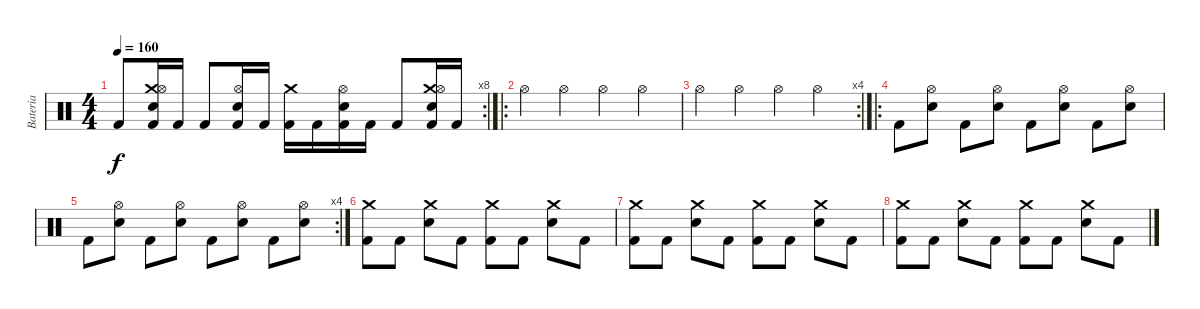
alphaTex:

\track ("Bateria" "Bateria") {instrument percussion}
\staff {score}
\articulation defaults
\rc 8
\ts (4 4)
\tempo 160
\clef neutral
\ks c "Kick (hit) 2".8{dy f}
("Crash medium (hit)" "Hi-Hat (open)" "Snare (hit) 2" "Kick (hit) 2").16 "Kick (hit) 2".16 "Kick (hit) 2".8 ("Hi-Hat (open)" "Snare (hit) 2" "Kick (hit) 2").16 "Kick (hit) 2".16 ("Crash medium (hit)" "Kick (hit) 2").16 "Kick (hit) 2".16 ("Hi-Hat (open)" "Snare (hit) 2" "Kick (hit) 2").16 "Kick (hit) 2".16 "Kick (hit) 2".8 ("Crash medium (hit)" "Hi-Hat (open)" "Snare (hit) 2" "Kick (hit) 2").16 "Kick (hit) 2".16 |
\ro "Hi-Hat (open)".4 "Hi-Hat (open)".4 "Hi-Hat (open)".4 "Hi-Hat (open)".4
|
\rc 4 "Hi-Hat (open)".4 "Hi-Hat (open)".4 "Hi-Hat (open)".4 "Hi-Hat (open)".4
|
\ro "Kick (hit) 2".8
("Hi-Hat (open)" "Electric Snare (hit)").8 "Kick (hit) 2".8 ("Hi-Hat (open)" "Electric Snare (hit)").8 "Kick (hit) 2".8 ("Hi-Hat (open)" "Electric Snare (hit)").8 "Kick (hit) 2".8 ("Hi-Hat (open)" "Electric Snare (hit)").8 |
\rc 4 "Kick (hit) 2".8
("Hi-Hat (open)" "Electric Snare (hit)").8 "Kick (hit) 2".8 ("Hi-Hat (open)" "Electric Snare (hit)").8 "Kick (hit) 2".8 ("Hi-Hat (open)" "Electric Snare (hit)").8 "Kick (hit) 2".8 ("Hi-Hat (open)" "Electric Snare (hit)").8 |
("Crash medium (hit)" "Kick (hit) 2").8 "Kick (hit) 2".8 ("Crash medium (hit)" "Snare (hit) 2").8 "Kick (hit) 2".8 ("Crash medium (hit)" "Kick (hit) 2").8 "Kick (hit) 2".8 ("Crash medium (hit)" "Snare (hit) 2").8 "Kick (hit) 2".8 |
("Crash medium (hit)" "Kick (hit) 2").8 "Kick (hit) 2".8 ("Crash medium (hit)" "Electric Snare (hit)").8 "Kick (hit) 2".8 ("Crash medium (hit)" "Kick (hit) 2").8 "Kick (hit) 2".8 ("Crash medium (hit)" "Electric Snare (hit)").8 "Kick (hit) 2".8 |
("Crash medium (hit)" "Kick (hit) 2").8 "Kick (hit) 2".8 ("Crash medium (hit)" "Snare (hit) 2").8 "Kick (hit) 2".8 ("Crash medium (hit)" "Kick (hit) 2").8 "Kick (hit) 2".8 ("Crash medium (hit)" "Snare (hit) 2").8 "Kick (hit) 2".8
